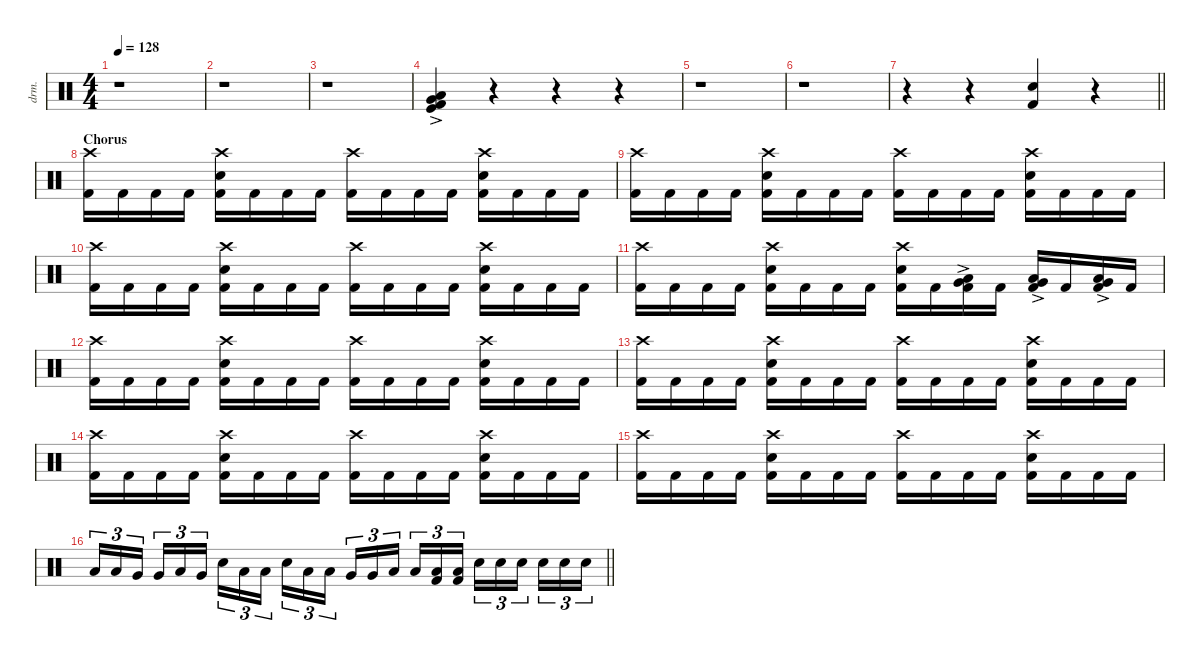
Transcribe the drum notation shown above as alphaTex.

\defaultSystemsLayout 4
\hideDynamics
\bracketExtendMode nobrackets
\otherSystemsTrackNameOrientation horizontal
\track ("Drums" "drm.") {instrument percussion}
\staff {score}
\articulation defaults
\ts (4 4)
\tempo 128
\clef neutral
\ks c
r.1{dy f beam Down} |
r.1{beam Down} |
r.1{beam Down} |
("Low Floor Tom (hit)"{ac} "Very Low Tom (hit)"{ac} "Kick (hit)" "Kick (hit) 2").4{beam Up} r.4{beam Up} r.4{beam Up} r.4{beam Up} |
r.1{beam Down} |
r.1{beam Down} |
\barLineRight lightlight
r.4{beam Down} r.4{beam Down} ("Snare (hit) 2" "Kick (hit) 2").4{beam Up} r.4{beam Up} |
\section ("" "Chorus")
("Crash high (hit)" "Kick (hit) 2").16{beam Down} "Kick (hit) 2".16{beam Down} "Kick (hit) 2".16{beam Down} "Kick (hit) 2".16{beam Down} ("Crash high (hit)" "Snare (hit) 2" "Kick (hit) 2").16{beam Down} "Kick (hit) 2".16{beam Down} "Kick (hit) 2".16{beam Down} "Kick (hit) 2".16{beam Down} ("Crash high (hit)" "Kick (hit) 2").16{beam Down} "Kick (hit) 2".16{beam Down} "Kick (hit) 2".16{beam Down} "Kick (hit) 2".16{beam Down} ("Crash high (hit)" "Snare (hit) 2" "Kick (hit) 2").16{beam Down} "Kick (hit) 2".16{beam Down} "Kick (hit) 2".16{beam Down} "Kick (hit) 2".16{beam Down} |
("Crash high (hit)" "Kick (hit) 2").16{beam Down} "Kick (hit) 2".16{beam Down} "Kick (hit) 2".16{beam Down} "Kick (hit) 2".16{beam Down} ("Crash high (hit)" "Snare (hit) 2" "Kick (hit) 2").16{beam Down} "Kick (hit) 2".16{beam Down} "Kick (hit) 2".16{beam Down} "Kick (hit) 2".16{beam Down} ("Crash high (hit)" "Kick (hit) 2").16{beam Down} "Kick (hit) 2".16{beam Down} "Kick (hit) 2".16{beam Down} "Kick (hit) 2".16{beam Down} ("Crash high (hit)" "Snare (hit) 2" "Kick (hit) 2").16{beam Down} "Kick (hit) 2".16{beam Down} "Kick (hit) 2".16{beam Down} "Kick (hit) 2".16{beam Down} |
("Crash high (hit)" "Kick (hit) 2").16{beam Down} "Kick (hit) 2".16{beam Down} "Kick (hit) 2".16{beam Down} "Kick (hit) 2".16{beam Down} ("Crash high (hit)" "Snare (hit) 2" "Kick (hit) 2").16{beam Down} "Kick (hit) 2".16{beam Down} "Kick (hit) 2".16{beam Down} "Kick (hit) 2".16{beam Down} ("Crash high (hit)" "Kick (hit) 2").16{beam Down} "Kick (hit) 2".16{beam Down} "Kick (hit) 2".16{beam Down} "Kick (hit) 2".16{beam Down} ("Crash high (hit)" "Snare (hit) 2" "Kick (hit) 2").16{beam Down} "Kick (hit) 2".16{beam Down} "Kick (hit) 2".16{beam Down} "Kick (hit) 2".16{beam Down} |
("Crash high (hit)" "Kick (hit) 2").16{beam Down} "Kick (hit) 2".16{beam Down} "Kick (hit) 2".16{beam Down} "Kick (hit) 2".16{beam Down} ("Crash high (hit)" "Snare (hit) 2" "Kick (hit) 2").16{beam Down} "Kick (hit) 2".16{beam Down} "Kick (hit) 2".16{beam Down} "Kick (hit) 2".16{beam Down} ("Crash high (hit)" "Snare (hit) 2" "Kick (hit) 2").16{beam Down} "Kick (hit) 2".16{beam Down} ("Very Low Tom (hit)"{ac} "Low Floor Tom (hit)"{ac} "Kick (hit) 2").16{beam Down} "Kick (hit) 2".16{beam Down} ("Very Low Tom (hit)"{ac} "Low Floor Tom (hit)"{ac} "Kick (hit) 2").16{beam Up} "Kick (hit) 2".16{beam Up} ("Very Low Tom (hit)"{ac} "Low Floor Tom (hit)"{ac} "Kick (hit) 2").16{beam Up} "Kick (hit) 2".16{beam Up} |
("Crash high (hit)" "Kick (hit) 2").16{beam Down} "Kick (hit) 2".16{beam Down} "Kick (hit) 2".16{beam Down} "Kick (hit) 2".16{beam Down} ("Crash high (hit)" "Snare (hit) 2" "Kick (hit) 2").16{beam Down} "Kick (hit) 2".16{beam Down} "Kick (hit) 2".16{beam Down} "Kick (hit) 2".16{beam Down} ("Crash high (hit)" "Kick (hit) 2").16{beam Down} "Kick (hit) 2".16{beam Down} "Kick (hit) 2".16{beam Down} "Kick (hit) 2".16{beam Down} ("Crash high (hit)" "Snare (hit) 2" "Kick (hit) 2").16{beam Down} "Kick (hit) 2".16{beam Down} "Kick (hit) 2".16{beam Down} "Kick (hit) 2".16{beam Down} |
("Crash high (hit)" "Kick (hit) 2").16{beam Down} "Kick (hit) 2".16{beam Down} "Kick (hit) 2".16{beam Down} "Kick (hit) 2".16{beam Down} ("Crash high (hit)" "Snare (hit) 2" "Kick (hit) 2").16{beam Down} "Kick (hit) 2".16{beam Down} "Kick (hit) 2".16{beam Down} "Kick (hit) 2".16{beam Down} ("Crash high (hit)" "Kick (hit) 2").16{beam Down} "Kick (hit) 2".16{beam Down} "Kick (hit) 2".16{beam Down} "Kick (hit) 2".16{beam Down} ("Crash high (hit)" "Snare (hit) 2" "Kick (hit) 2").16{beam Down} "Kick (hit) 2".16{beam Down} "Kick (hit) 2".16{beam Down} "Kick (hit) 2".16{beam Down} |
("Crash high (hit)" "Kick (hit) 2").16{beam Down} "Kick (hit) 2".16{beam Down} "Kick (hit) 2".16{beam Down} "Kick (hit) 2".16{beam Down} ("Crash high (hit)" "Snare (hit) 2" "Kick (hit) 2").16{beam Down} "Kick (hit) 2".16{beam Down} "Kick (hit) 2".16{beam Down} "Kick (hit) 2".16{beam Down} ("Crash high (hit)" "Kick (hit) 2").16{beam Down} "Kick (hit) 2".16{beam Down} "Kick (hit) 2".16{beam Down} "Kick (hit) 2".16{beam Down} ("Crash high (hit)" "Snare (hit) 2" "Kick (hit) 2").16{beam Down} "Kick (hit) 2".16{beam Down} "Kick (hit) 2".16{beam Down} "Kick (hit) 2".16{beam Down} |
("Crash high (hit)" "Kick (hit) 2").16{beam Down} "Kick (hit) 2".16{beam Down} "Kick (hit) 2".16{beam Down} "Kick (hit) 2".16{beam Down} ("Crash high (hit)" "Snare (hit) 2" "Kick (hit) 2").16{beam Down} "Kick (hit) 2".16{beam Down} "Kick (hit) 2".16{beam Down} "Kick (hit) 2".16{beam Down} ("Crash high (hit)" "Kick (hit) 2").16{beam Down} "Kick (hit) 2".16{beam Down} "Kick (hit) 2".16{beam Down} "Kick (hit) 2".16{beam Down} ("Crash high (hit)" "Snare (hit) 2" "Kick (hit) 2").16{beam Down} "Kick (hit) 2".16{beam Down} "Kick (hit) 2".16{beam Down} "Kick (hit) 2".16{beam Down} |
\barLineRight lightlight "Low Tom (hit)".16{tu (3 2) beam Up} "Low Tom (hit)".16{tu (3 2) beam Up} "Very Low Tom (hit)".16{tu (3 2) beam Up} "Very Low Tom (hit)".16{tu (3 2) beam Up} "Low Tom (hit)".16{tu (3 2) beam Up} "Very Low Tom (hit)".16{tu (3 2) beam Up} "Snare (hit) 2".16{tu (3 2) beam Down} "Low Tom (hit)".16{tu (3 2) beam Down} "Low Tom (hit)".16{tu (3 2) beam Down} "Snare (hit) 2".16{tu (3 2) beam Down} "Low Tom (hit)".16{tu (3 2) beam Down} "Low Tom (hit)".16{tu (3 2) beam Down} "Very Low Tom (hit)".16{tu (3 2) beam Up} "Very Low Tom (hit)".16{tu (3 2) beam Up} "Low Floor Tom (hit)".16{tu (3 2) beam Up} "Low Floor Tom (hit)".16{tu (3 2) beam Up}
("Low Tom (hit)" "Kick (hit) 2").16{tu (3 2) beam Up} ("Low Tom (hit)" "Kick (hit) 2").16{tu (3 2) beam Up} "Snare (hit) 2".16{tu (3 2) beam Down} "Snare (hit) 2".16{tu (3 2) beam Down} "Snare (hit) 2".16{tu (3 2) beam Down} "Snare (hit) 2".16{tu (3 2) beam Down} "Snare (hit) 2".16{tu (3 2) beam Down} "Snare (hit) 2".16{tu (3 2) beam Down}
